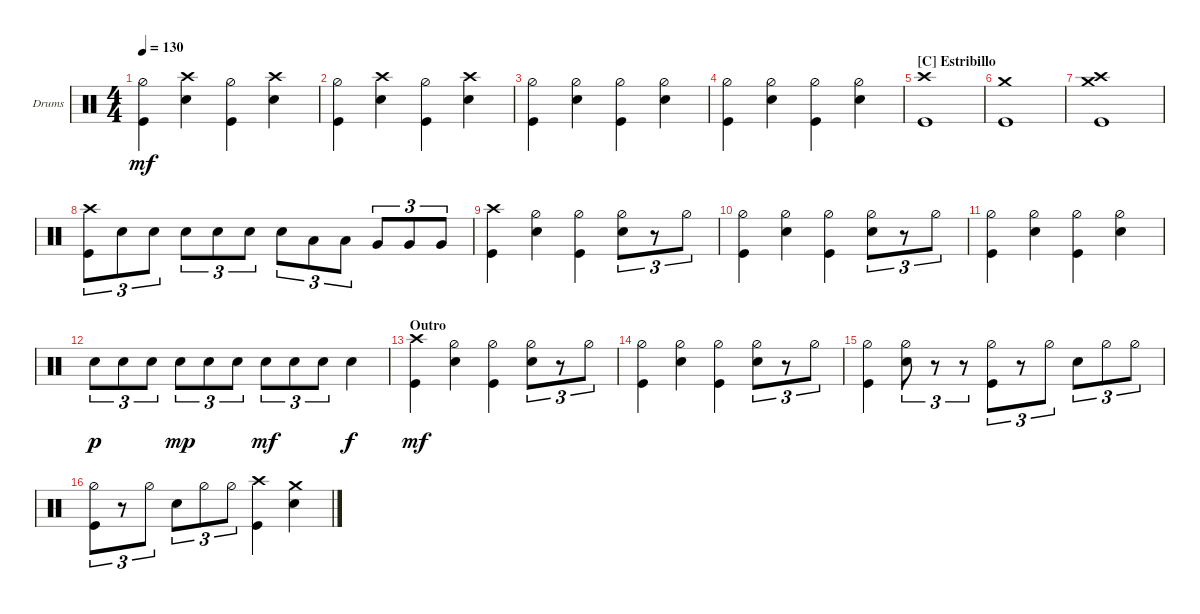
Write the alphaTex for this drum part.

\bracketExtendMode groupsimilarinstruments
\firstSystemTrackNameOrientation horizontal
\otherSystemsTrackNameOrientation horizontal
\track ("Drums Ghoul" "Drums") {instrument percussion}
\staff {score}
\articulation defaults
\ts (4 4)
\tempo 130
\clef neutral
\ks c
("Kick (hit)" "Hi-Hat (half)").4{dy mf} ("Snare (hit) 2" "Crash high (hit)").4 ("Kick (hit)" "Hi-Hat (half)").4 ("Snare (hit) 2" "Crash high (hit)").4 |
("Kick (hit)" "Hi-Hat (half)").4 ("Snare (hit) 2" "Crash high (hit)").4 ("Kick (hit)" "Hi-Hat (half)").4 ("Snare (hit) 2" "Crash high (hit)").4 |
("Kick (hit)" "Hi-Hat (half)").4 ("Snare (hit) 2" "Hi-Hat (half)").4 ("Kick (hit)" "Hi-Hat (half)").4 ("Snare (hit) 2" "Hi-Hat (half)").4 |
("Kick (hit)" "Hi-Hat (half)").4 ("Snare (hit) 2" "Hi-Hat (half)").4 ("Kick (hit)" "Hi-Hat (half)").4 ("Snare (hit) 2" "Hi-Hat (half)").4 |
\section ("C" "Estribillo")
("Kick (hit)" "Crash high (hit)").1 |
("Crash medium (hit)" "Kick (hit)").1 |
("Kick (hit)" "Crash high (hit)" "Crash medium (hit)").1 |
("Kick (hit)" "Crash high (hit)").8{tu (3 2)} "Snare (hit) 2".8{tu (3 2)} "Snare (hit) 2".8{tu (3 2)} "Snare (hit) 2".8{tu (3 2)} "Snare (hit) 2".8{tu (3 2)} "Snare (hit) 2".8{tu (3 2)} "Snare (hit) 2".8{tu (3 2)} "Low Tom (hit)".8{tu (3 2)} "Low Tom (hit)".8{tu (3 2)} "Very Low Tom (hit)".8{tu (3 2)} "Very Low Tom (hit)".8{tu (3 2)} "Very Low Tom (hit)".8{tu (3 2)} |
("Kick (hit)" "Crash high (hit)").4 ("Snare (hit) 2" "Hi-Hat (half)").4 ("Kick (hit)" "Hi-Hat (half)").4 ("Snare (hit) 2" "Hi-Hat (half)").8{tu (3 2)} r.8{tu (3 2)} "Hi-Hat (half)".8{tu (3 2)} |
("Kick (hit)" "Hi-Hat (half)").4 ("Snare (hit) 2" "Hi-Hat (half)").4 ("Kick (hit)" "Hi-Hat (half)").4 ("Snare (hit) 2" "Hi-Hat (half)").8{tu (3 2)} r.8{tu (3 2)} "Hi-Hat (half)".8{tu (3 2)} |
("Kick (hit)" "Hi-Hat (half)").4 ("Snare (hit) 2" "Hi-Hat (half)").4 ("Kick (hit)" "Hi-Hat (half)").4 ("Snare (hit) 2" "Hi-Hat (half)").4 |
"Snare (hit) 2".8{tu (3 2) dy p} "Snare (hit) 2".8{tu (3 2)} "Snare (hit) 2".8{tu (3 2)} "Snare (hit) 2".8{tu (3 2) dy mp} "Snare (hit) 2".8{tu (3 2)} "Snare (hit) 2".8{tu (3 2)} "Snare (hit) 2".8{tu (3 2) dy mf} "Snare (hit) 2".8{tu (3 2)} "Snare (hit) 2".8{tu (3 2)} "Snare (hit) 2".4{dy f} |
\section ("" "Outro")
("Kick (hit)" "Crash high (hit)").4{dy mf} ("Snare (hit) 2" "Hi-Hat (half)").4 ("Kick (hit)" "Hi-Hat (half)").4 ("Snare (hit) 2" "Hi-Hat (half)").8{tu (3 2)} r.8{tu (3 2)} "Hi-Hat (half)".8{tu (3 2)} |
("Kick (hit)" "Hi-Hat (half)").4 ("Snare (hit) 2" "Hi-Hat (half)").4 ("Kick (hit)" "Hi-Hat (half)").4 ("Snare (hit) 2" "Hi-Hat (half)").8{tu (3 2)} r.8{tu (3 2)} "Hi-Hat (half)".8{tu (3 2)} |
("Kick (hit)" "Hi-Hat (half)").4 ("Snare (hit) 2" "Hi-Hat (half)").8{tu (3 2)} r.8{tu (3 2)} r.8{tu (3 2)} ("Kick (hit)" "Hi-Hat (half)").8{tu (3 2)} r.8{tu (3 2)} "Hi-Hat (half)".8{tu (3 2)} "Snare (hit) 2".8{tu (3 2)} "Hi-Hat (half)".8{tu (3 2)} "Hi-Hat (half)".8{tu (3 2)} |
("Kick (hit)" "Hi-Hat (half)").8{tu (3 2)} r.8{tu (3 2)} "Hi-Hat (half)".8{tu (3 2)} "Snare (hit) 2".8{tu (3 2)} "Hi-Hat (half)".8{tu (3 2)} "Hi-Hat (half)".8{tu (3 2)} ("Kick (hit)" "Crash high (hit)").4 ("Snare (hit) 2" "Crash medium (hit)").4
